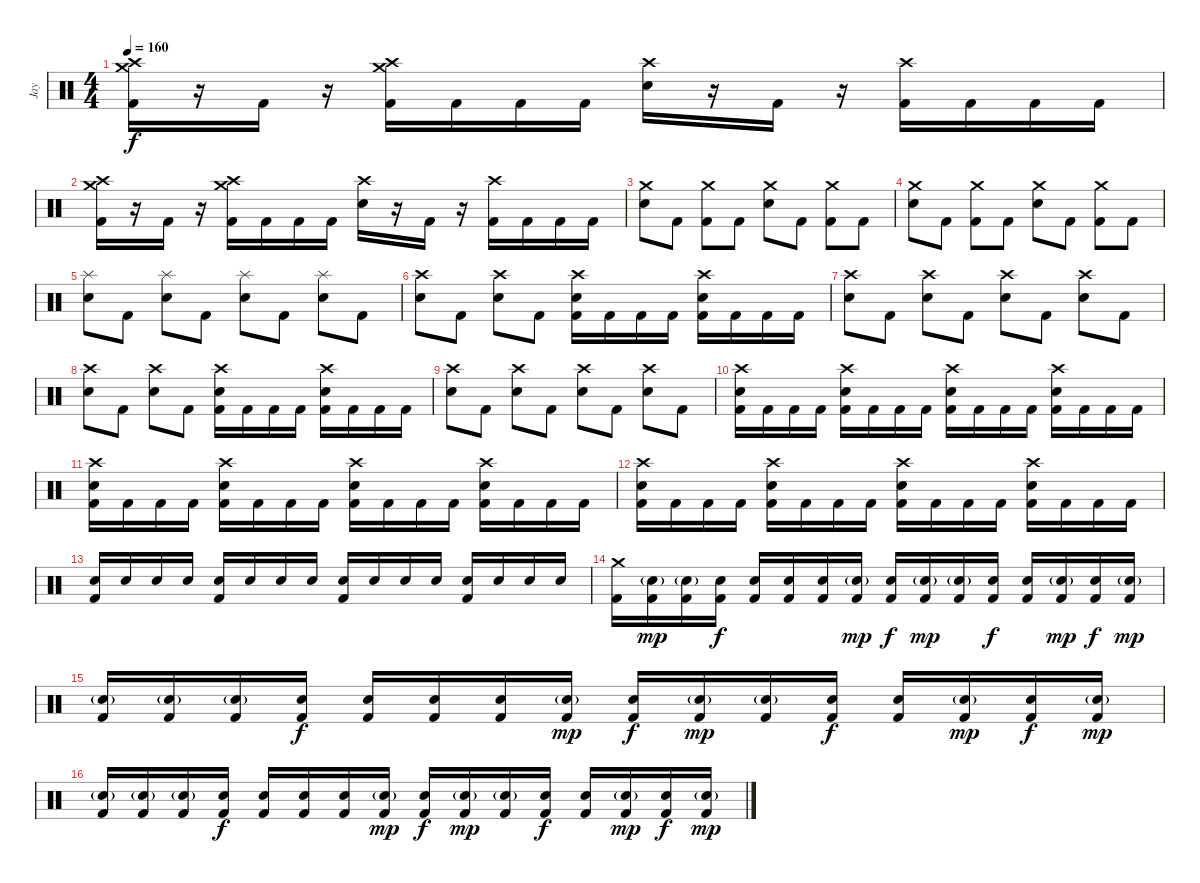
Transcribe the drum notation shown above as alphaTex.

\track ("Jay" "Jay") {instrument percussion}
\staff {score}
\articulation defaults
\ts (4 4)
\tempo 160
\clef neutral
\ks c
("Crash high (hit)" "Crash medium (hit)" "Kick (hit) 2").16{dy f} r.16 "Kick (hit) 2".16 r.16 ("Crash high (hit)" "Crash medium (hit)" "Kick (hit) 2").16 "Kick (hit) 2".16 "Kick (hit) 2".16 "Kick (hit) 2".16 ("Crash high (hit)" "Electric Snare (hit)").16 r.16 "Kick (hit) 2".16 r.16 ("Crash high (hit)" "Kick (hit) 2").16 "Kick (hit) 2".16 "Kick (hit) 2".16 "Kick (hit) 2".16 |
("Crash high (hit)" "Crash medium (hit)" "Kick (hit) 2").16 r.16 "Kick (hit) 2".16 r.16 ("Crash high (hit)" "Crash medium (hit)" "Kick (hit) 2").16 "Kick (hit) 2".16 "Kick (hit) 2".16 "Kick (hit) 2".16 ("Crash high (hit)" "Electric Snare (hit)").16 r.16 "Kick (hit) 2".16 r.16 ("Crash high (hit)" "Kick (hit) 2").16 "Kick (hit) 2".16 "Kick (hit) 2".16 "Kick (hit) 2".16 |
("Crash medium (hit)" "Electric Snare (hit)").8 "Kick (hit) 2".8 ("Crash medium (hit)" "Kick (hit) 2").8 "Kick (hit) 2".8 ("Crash medium (hit)" "Electric Snare (hit)").8 "Kick (hit) 2".8 ("Crash medium (hit)" "Kick (hit) 2").8 "Kick (hit) 2".8 |
("Crash medium (hit)" "Electric Snare (hit)").8 "Kick (hit) 2".8 ("Crash medium (hit)" "Kick (hit) 2").8 "Kick (hit) 2".8 ("Crash medium (hit)" "Electric Snare (hit)").8 "Kick (hit) 2".8 ("Crash medium (hit)" "Kick (hit) 2").8 "Kick (hit) 2".8 |
("Splash (hit)" "Electric Snare (hit)").8 "Kick (hit) 2".8 ("Splash (hit)" "Electric Snare (hit)").8 "Kick (hit) 2".8 ("Splash (hit)" "Electric Snare (hit)").8 "Kick (hit) 2".8 ("Splash (hit)" "Electric Snare (hit)").8 "Kick (hit) 2".8 |
("Crash high (hit)" "Electric Snare (hit)").8 "Kick (hit) 2".8 ("Crash high (hit)" "Electric Snare (hit)").8 "Kick (hit) 2".8 ("Crash high (hit)" "Electric Snare (hit)" "Kick (hit) 2").16 "Kick (hit) 2".16 "Kick (hit) 2".16 "Kick (hit) 2".16 ("Crash high (hit)" "Electric Snare (hit)" "Kick (hit) 2").16 "Kick (hit) 2".16 "Kick (hit) 2".16 "Kick (hit) 2".16 |
("Crash high (hit)" "Electric Snare (hit)").8 "Kick (hit) 2".8 ("Crash high (hit)" "Electric Snare (hit)").8 "Kick (hit) 2".8 ("Crash high (hit)" "Electric Snare (hit)").8 "Kick (hit) 2".8 ("Crash high (hit)" "Electric Snare (hit)").8 "Kick (hit) 2".8 |
("Crash high (hit)" "Electric Snare (hit)").8 "Kick (hit) 2".8 ("Crash high (hit)" "Electric Snare (hit)").8 "Kick (hit) 2".8 ("Crash high (hit)" "Electric Snare (hit)" "Kick (hit) 2").16 "Kick (hit) 2".16 "Kick (hit) 2".16 "Kick (hit) 2".16 ("Crash high (hit)" "Electric Snare (hit)" "Kick (hit) 2").16 "Kick (hit) 2".16 "Kick (hit) 2".16 "Kick (hit) 2".16 |
("Crash high (hit)" "Electric Snare (hit)").8 "Kick (hit) 2".8 ("Crash high (hit)" "Electric Snare (hit)").8 "Kick (hit) 2".8 ("Crash high (hit)" "Electric Snare (hit)").8 "Kick (hit) 2".8 ("Crash high (hit)" "Electric Snare (hit)").8 "Kick (hit) 2".8 |
("Crash high (hit)" "Electric Snare (hit)" "Kick (hit) 2").16 "Kick (hit) 2".16 "Kick (hit) 2".16 "Kick (hit) 2".16 ("Crash high (hit)" "Electric Snare (hit)" "Kick (hit) 2").16 "Kick (hit) 2".16 "Kick (hit) 2".16 "Kick (hit) 2".16 ("Crash high (hit)" "Electric Snare (hit)" "Kick (hit) 2").16 "Kick (hit) 2".16 "Kick (hit) 2".16 "Kick (hit) 2".16 ("Crash high (hit)" "Electric Snare (hit)" "Kick (hit) 2").16 "Kick (hit) 2".16 "Kick (hit) 2".16 "Kick (hit) 2".16 |
("Crash high (hit)" "Electric Snare (hit)" "Kick (hit) 2").16 "Kick (hit) 2".16 "Kick (hit) 2".16 "Kick (hit) 2".16 ("Crash high (hit)" "Electric Snare (hit)" "Kick (hit) 2").16 "Kick (hit) 2".16 "Kick (hit) 2".16 "Kick (hit) 2".16 ("Crash high (hit)" "Electric Snare (hit)" "Kick (hit) 2").16 "Kick (hit) 2".16 "Kick (hit) 2".16 "Kick (hit) 2".16 ("Crash high (hit)" "Electric Snare (hit)" "Kick (hit) 2").16 "Kick (hit) 2".16 "Kick (hit) 2".16 "Kick (hit) 2".16 |
("Crash high (hit)" "Electric Snare (hit)" "Kick (hit) 2").16 "Kick (hit) 2".16 "Kick (hit) 2".16 "Kick (hit) 2".16 ("Crash high (hit)" "Electric Snare (hit)" "Kick (hit) 2").16 "Kick (hit) 2".16 "Kick (hit) 2".16 "Kick (hit) 2".16 ("Crash high (hit)" "Electric Snare (hit)" "Kick (hit) 2").16 "Kick (hit) 2".16 "Kick (hit) 2".16 "Kick (hit) 2".16 ("Crash high (hit)" "Electric Snare (hit)" "Kick (hit) 2").16 "Kick (hit) 2".16 "Kick (hit) 2".16 "Kick (hit) 2".16 |
("Electric Snare (hit)" "Kick (hit) 2").16 "Electric Snare (hit)".16 "Electric Snare (hit)".16 "Electric Snare (hit)".16 ("Electric Snare (hit)" "Kick (hit) 2").16 "Electric Snare (hit)".16 "Electric Snare (hit)".16 "Electric Snare (hit)".16 ("Electric Snare (hit)" "Kick (hit) 2").16 "Electric Snare (hit)".16 "Electric Snare (hit)".16 "Electric Snare (hit)".16 ("Electric Snare (hit)" "Kick (hit) 2").16 "Electric Snare (hit)".16 "Electric Snare (hit)".16 "Electric Snare (hit)".16 |
("Crash medium (hit)" "Kick (hit) 2").16 ("Electric Snare (hit)"{g} "Kick (hit) 2").16{dy mp} ("Electric Snare (hit)"{g} "Kick (hit) 2").16 ("Electric Snare (hit)" "Kick (hit) 2").16{dy f} ("Electric Snare (hit)" "Kick (hit) 2").16 ("Electric Snare (hit)" "Kick (hit) 2").16 ("Electric Snare (hit)" "Kick (hit) 2").16 ("Electric Snare (hit)"{g} "Kick (hit) 2").16{dy mp} ("Electric Snare (hit)" "Kick (hit) 2").16{dy f} ("Electric Snare (hit)"{g} "Kick (hit) 2").16{dy mp} ("Electric Snare (hit)"{g} "Kick (hit) 2").16 ("Electric Snare (hit)" "Kick (hit) 2").16{dy f} ("Electric Snare (hit)" "Kick (hit) 2").16 ("Electric Snare (hit)"{g} "Kick (hit) 2").16{dy mp} ("Electric Snare (hit)" "Kick (hit) 2").16{dy f} ("Electric Snare (hit)"{g} "Kick (hit) 2").16{dy mp} |
("Electric Snare (hit)"{g} "Kick (hit) 2").16 ("Electric Snare (hit)"{g} "Kick (hit) 2").16 ("Electric Snare (hit)"{g} "Kick (hit) 2").16 ("Electric Snare (hit)" "Kick (hit) 2").16{dy f} ("Electric Snare (hit)" "Kick (hit) 2").16 ("Electric Snare (hit)" "Kick (hit) 2").16 ("Electric Snare (hit)" "Kick (hit) 2").16 ("Electric Snare (hit)"{g} "Kick (hit) 2").16{dy mp} ("Electric Snare (hit)" "Kick (hit) 2").16{dy f} ("Electric Snare (hit)"{g} "Kick (hit) 2").16{dy mp} ("Electric Snare (hit)"{g} "Kick (hit) 2").16 ("Electric Snare (hit)" "Kick (hit) 2").16{dy f} ("Electric Snare (hit)" "Kick (hit) 2").16 ("Electric Snare (hit)"{g} "Kick (hit) 2").16{dy mp} ("Electric Snare (hit)" "Kick (hit) 2").16{dy f} ("Electric Snare (hit)"{g} "Kick (hit) 2").16{dy mp} |
("Electric Snare (hit)"{g} "Kick (hit) 2").16 ("Electric Snare (hit)"{g} "Kick (hit) 2").16 ("Electric Snare (hit)"{g} "Kick (hit) 2").16 ("Electric Snare (hit)" "Kick (hit) 2").16{dy f} ("Electric Snare (hit)" "Kick (hit) 2").16 ("Electric Snare (hit)" "Kick (hit) 2").16 ("Electric Snare (hit)" "Kick (hit) 2").16 ("Electric Snare (hit)"{g} "Kick (hit) 2").16{dy mp} ("Electric Snare (hit)" "Kick (hit) 2").16{dy f} ("Electric Snare (hit)"{g} "Kick (hit) 2").16{dy mp} ("Electric Snare (hit)"{g} "Kick (hit) 2").16 ("Electric Snare (hit)" "Kick (hit) 2").16{dy f} ("Electric Snare (hit)" "Kick (hit) 2").16 ("Electric Snare (hit)"{g} "Kick (hit) 2").16{dy mp} ("Electric Snare (hit)" "Kick (hit) 2").16{dy f} ("Electric Snare (hit)"{g} "Kick (hit) 2").16{dy mp}
